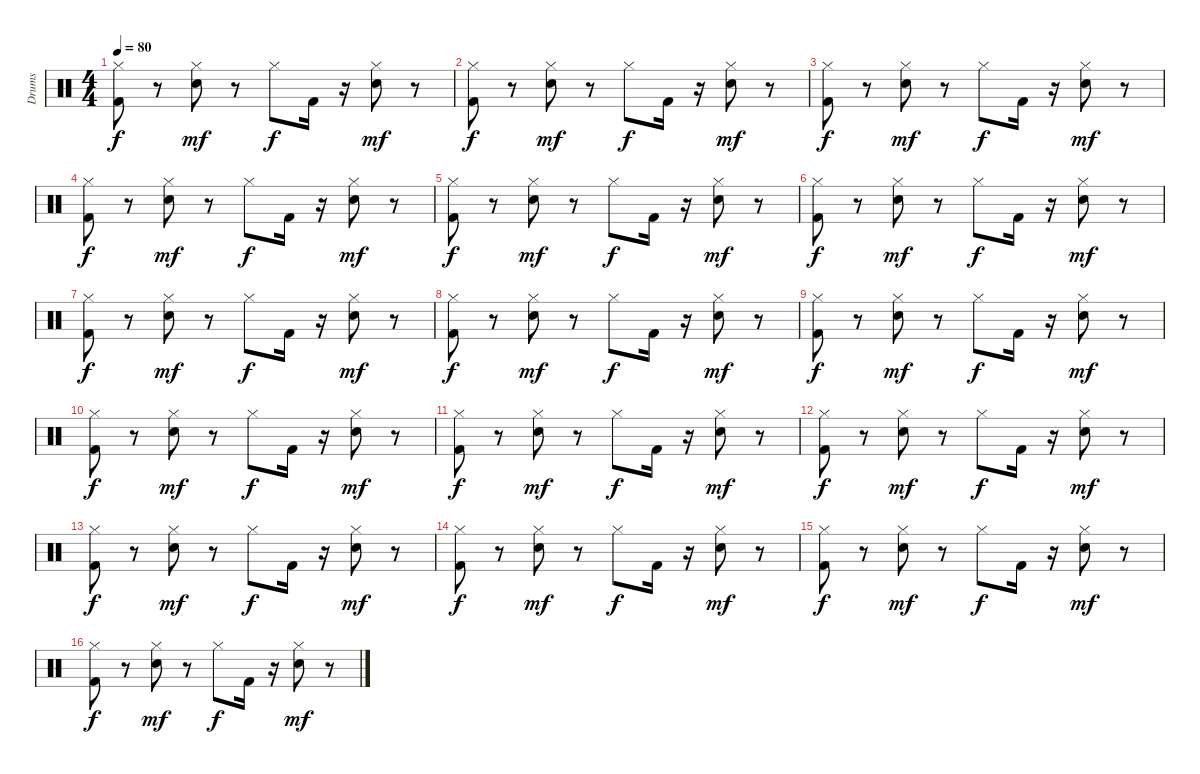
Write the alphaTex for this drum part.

\track ("Drums" "Drums") {instrument percussion}
\staff {score}
\articulation defaults
\ts (4 4)
\tempo 80
\clef neutral
\ks c
("Hi-Hat (closed)" "Kick (hit) 2").8{dy f} r.8 ("Hi-Hat (closed)" "Electric Snare (hit)").8{dy mf} r.8 "Hi-Hat (closed)".8{dy f} "Kick (hit) 2".16 r.16 ("Hi-Hat (closed)" "Electric Snare (hit)").8{dy mf} r.8 |
("Kick (hit) 2" "Hi-Hat (closed)").8{dy f} r.8 ("Hi-Hat (closed)" "Electric Snare (hit)").8{dy mf} r.8 "Hi-Hat (closed)".8{dy f} "Kick (hit) 2".16 r.16 ("Hi-Hat (closed)" "Electric Snare (hit)").8{dy mf} r.8 |
("Hi-Hat (closed)" "Kick (hit) 2").8{dy f} r.8 ("Hi-Hat (closed)" "Electric Snare (hit)").8{dy mf} r.8 "Hi-Hat (closed)".8{dy f} "Kick (hit) 2".16 r.16 ("Hi-Hat (closed)" "Electric Snare (hit)").8{dy mf} r.8 |
("Kick (hit) 2" "Hi-Hat (closed)").8{dy f} r.8 ("Hi-Hat (closed)" "Electric Snare (hit)").8{dy mf} r.8 "Hi-Hat (closed)".8{dy f} "Kick (hit) 2".16 r.16 ("Hi-Hat (closed)" "Electric Snare (hit)").8{dy mf} r.8 |
("Hi-Hat (closed)" "Kick (hit) 2").8{dy f} r.8 ("Hi-Hat (closed)" "Electric Snare (hit)").8{dy mf} r.8 "Hi-Hat (closed)".8{dy f} "Kick (hit) 2".16 r.16 ("Hi-Hat (closed)" "Electric Snare (hit)").8{dy mf} r.8 |
("Kick (hit) 2" "Hi-Hat (closed)").8{dy f} r.8 ("Hi-Hat (closed)" "Electric Snare (hit)").8{dy mf} r.8 "Hi-Hat (closed)".8{dy f} "Kick (hit) 2".16 r.16 ("Hi-Hat (closed)" "Electric Snare (hit)").8{dy mf} r.8 |
("Hi-Hat (closed)" "Kick (hit) 2").8{dy f} r.8 ("Hi-Hat (closed)" "Electric Snare (hit)").8{dy mf} r.8 "Hi-Hat (closed)".8{dy f} "Kick (hit) 2".16 r.16 ("Hi-Hat (closed)" "Electric Snare (hit)").8{dy mf} r.8 |
("Kick (hit) 2" "Hi-Hat (closed)").8{dy f} r.8 ("Hi-Hat (closed)" "Electric Snare (hit)").8{dy mf} r.8 "Hi-Hat (closed)".8{dy f} "Kick (hit) 2".16 r.16 ("Hi-Hat (closed)" "Electric Snare (hit)").8{dy mf} r.8 |
("Hi-Hat (closed)" "Kick (hit) 2").8{dy f} r.8 ("Hi-Hat (closed)" "Electric Snare (hit)").8{dy mf} r.8 "Hi-Hat (closed)".8{dy f} "Kick (hit) 2".16 r.16 ("Hi-Hat (closed)" "Electric Snare (hit)").8{dy mf} r.8 |
("Kick (hit) 2" "Hi-Hat (closed)").8{dy f} r.8 ("Hi-Hat (closed)" "Electric Snare (hit)").8{dy mf} r.8 "Hi-Hat (closed)".8{dy f} "Kick (hit) 2".16 r.16 ("Hi-Hat (closed)" "Electric Snare (hit)").8{dy mf} r.8 |
("Hi-Hat (closed)" "Kick (hit) 2").8{dy f} r.8 ("Hi-Hat (closed)" "Electric Snare (hit)").8{dy mf} r.8 "Hi-Hat (closed)".8{dy f} "Kick (hit) 2".16 r.16 ("Hi-Hat (closed)" "Electric Snare (hit)").8{dy mf} r.8 |
("Kick (hit) 2" "Hi-Hat (closed)").8{dy f} r.8 ("Hi-Hat (closed)" "Electric Snare (hit)").8{dy mf} r.8 "Hi-Hat (closed)".8{dy f} "Kick (hit) 2".16 r.16 ("Hi-Hat (closed)" "Electric Snare (hit)").8{dy mf} r.8 |
("Hi-Hat (closed)" "Kick (hit) 2").8{dy f} r.8 ("Hi-Hat (closed)" "Electric Snare (hit)").8{dy mf} r.8 "Hi-Hat (closed)".8{dy f} "Kick (hit) 2".16 r.16 ("Hi-Hat (closed)" "Electric Snare (hit)").8{dy mf} r.8 |
("Kick (hit) 2" "Hi-Hat (closed)").8{dy f} r.8 ("Hi-Hat (closed)" "Electric Snare (hit)").8{dy mf} r.8 "Hi-Hat (closed)".8{dy f} "Kick (hit) 2".16 r.16 ("Hi-Hat (closed)" "Electric Snare (hit)").8{dy mf} r.8 |
("Hi-Hat (closed)" "Kick (hit) 2").8{dy f} r.8 ("Hi-Hat (closed)" "Electric Snare (hit)").8{dy mf} r.8 "Hi-Hat (closed)".8{dy f} "Kick (hit) 2".16 r.16 ("Hi-Hat (closed)" "Electric Snare (hit)").8{dy mf} r.8 |
("Kick (hit) 2" "Hi-Hat (closed)").8{dy f} r.8 ("Hi-Hat (closed)" "Electric Snare (hit)").8{dy mf} r.8 "Hi-Hat (closed)".8{dy f} "Kick (hit) 2".16 r.16 ("Hi-Hat (closed)" "Electric Snare (hit)").8{dy mf} r.8
